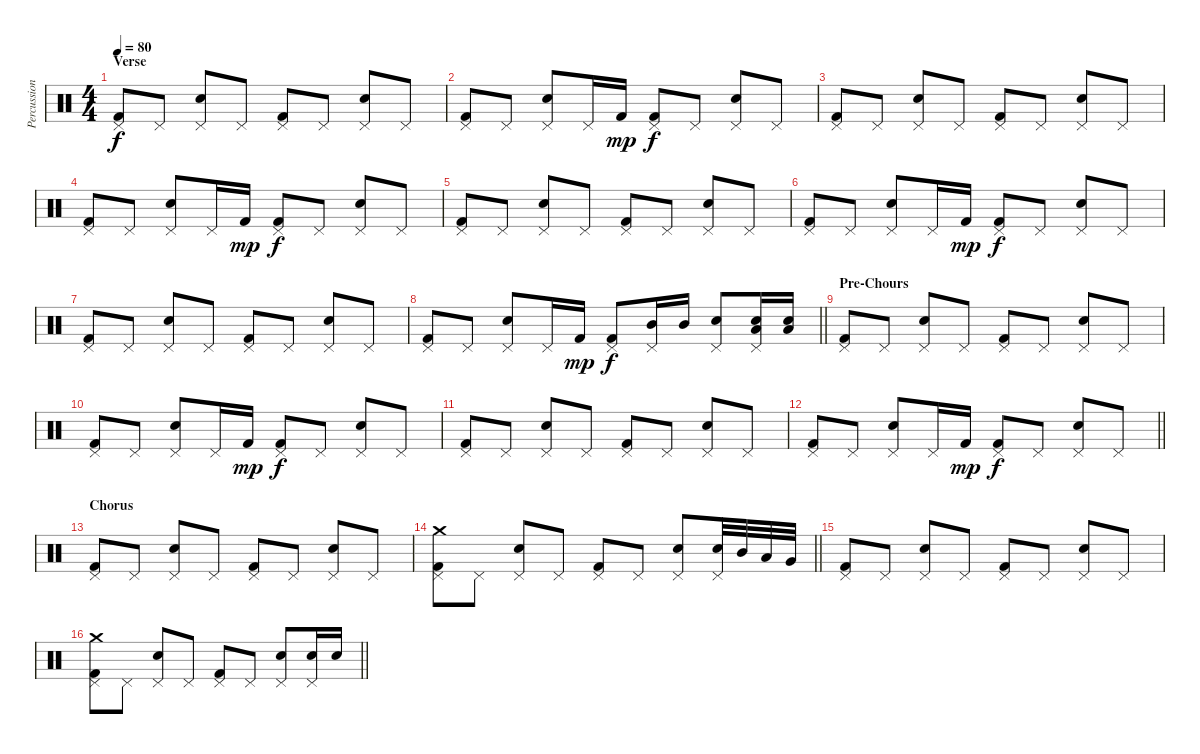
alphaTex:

\track ("Percussion" "Percussion") {instrument percussion}
\staff {score}
\articulation defaults
\ts (4 4)
\section ("" "Verse")
\tempo 80
\clef neutral
\ks c
("Pedal Hi-Hat (hit)" "Kick (hit) 2").8{dy f} "Pedal Hi-Hat (hit)".8 ("Pedal Hi-Hat (hit)" "Electric Snare (hit)").8 "Pedal Hi-Hat (hit)".8 ("Kick (hit) 2" "Pedal Hi-Hat (hit)").8 "Pedal Hi-Hat (hit)".8 ("Electric Snare (hit)" "Pedal Hi-Hat (hit)").8 "Pedal Hi-Hat (hit)".8 |
("Pedal Hi-Hat (hit)" "Kick (hit) 2").8 "Pedal Hi-Hat (hit)".8 ("Pedal Hi-Hat (hit)" "Electric Snare (hit)").8 "Pedal Hi-Hat (hit)".16 "Kick (hit) 2".16{dy mp} ("Kick (hit) 2" "Pedal Hi-Hat (hit)").8{dy f} "Pedal Hi-Hat (hit)".8 ("Electric Snare (hit)" "Pedal Hi-Hat (hit)").8 "Pedal Hi-Hat (hit)".8 |
("Pedal Hi-Hat (hit)" "Kick (hit) 2").8 "Pedal Hi-Hat (hit)".8 ("Pedal Hi-Hat (hit)" "Electric Snare (hit)").8 "Pedal Hi-Hat (hit)".8 ("Kick (hit) 2" "Pedal Hi-Hat (hit)").8 "Pedal Hi-Hat (hit)".8 ("Electric Snare (hit)" "Pedal Hi-Hat (hit)").8 "Pedal Hi-Hat (hit)".8 |
("Pedal Hi-Hat (hit)" "Kick (hit) 2").8 "Pedal Hi-Hat (hit)".8 ("Pedal Hi-Hat (hit)" "Electric Snare (hit)").8 "Pedal Hi-Hat (hit)".16 "Kick (hit) 2".16{dy mp} ("Kick (hit) 2" "Pedal Hi-Hat (hit)").8{dy f} "Pedal Hi-Hat (hit)".8 ("Electric Snare (hit)" "Pedal Hi-Hat (hit)").8 "Pedal Hi-Hat (hit)".8 |
("Pedal Hi-Hat (hit)" "Kick (hit) 2").8 "Pedal Hi-Hat (hit)".8 ("Pedal Hi-Hat (hit)" "Electric Snare (hit)").8 "Pedal Hi-Hat (hit)".8 ("Kick (hit) 2" "Pedal Hi-Hat (hit)").8 "Pedal Hi-Hat (hit)".8 ("Electric Snare (hit)" "Pedal Hi-Hat (hit)").8 "Pedal Hi-Hat (hit)".8 |
("Pedal Hi-Hat (hit)" "Kick (hit) 2").8 "Pedal Hi-Hat (hit)".8 ("Pedal Hi-Hat (hit)" "Electric Snare (hit)").8 "Pedal Hi-Hat (hit)".16 "Kick (hit) 2".16{dy mp} ("Kick (hit) 2" "Pedal Hi-Hat (hit)").8{dy f} "Pedal Hi-Hat (hit)".8 ("Electric Snare (hit)" "Pedal Hi-Hat (hit)").8 "Pedal Hi-Hat (hit)".8 |
("Pedal Hi-Hat (hit)" "Kick (hit) 2").8 "Pedal Hi-Hat (hit)".8 ("Pedal Hi-Hat (hit)" "Electric Snare (hit)").8 "Pedal Hi-Hat (hit)".8 ("Kick (hit) 2" "Pedal Hi-Hat (hit)").8 "Pedal Hi-Hat (hit)".8 ("Electric Snare (hit)" "Pedal Hi-Hat (hit)").8 "Pedal Hi-Hat (hit)".8 |
\barLineRight lightlight
("Pedal Hi-Hat (hit)" "Kick (hit) 2").8 "Pedal Hi-Hat (hit)".8 ("Pedal Hi-Hat (hit)" "Electric Snare (hit)").8 "Pedal Hi-Hat (hit)".16 "Kick (hit) 2".16{dy mp} ("Pedal Hi-Hat (hit)" "Kick (hit) 2").8{dy f} ("Pedal Hi-Hat (hit)" "Mid Tom (hit)").16 "Mid Tom (hit)".16 ("Electric Snare (hit)" "Pedal Hi-Hat (hit)").8 ("Pedal Hi-Hat (hit)" "Electric Snare (hit)" "Low Tom (hit)").16 ("Electric Snare (hit)" "Low Tom (hit)").16 |
\section ("" "Pre-Chours")
("Pedal Hi-Hat (hit)" "Kick (hit) 2").8 "Pedal Hi-Hat (hit)".8 ("Pedal Hi-Hat (hit)" "Electric Snare (hit)").8 "Pedal Hi-Hat (hit)".8 ("Kick (hit) 2" "Pedal Hi-Hat (hit)").8 "Pedal Hi-Hat (hit)".8 ("Electric Snare (hit)" "Pedal Hi-Hat (hit)").8 "Pedal Hi-Hat (hit)".8 |
("Pedal Hi-Hat (hit)" "Kick (hit) 2").8 "Pedal Hi-Hat (hit)".8 ("Pedal Hi-Hat (hit)" "Electric Snare (hit)").8 "Pedal Hi-Hat (hit)".16 "Kick (hit) 2".16{dy mp} ("Kick (hit) 2" "Pedal Hi-Hat (hit)").8{dy f} "Pedal Hi-Hat (hit)".8 ("Electric Snare (hit)" "Pedal Hi-Hat (hit)").8 "Pedal Hi-Hat (hit)".8 |
("Pedal Hi-Hat (hit)" "Kick (hit) 2").8 "Pedal Hi-Hat (hit)".8 ("Pedal Hi-Hat (hit)" "Electric Snare (hit)").8 "Pedal Hi-Hat (hit)".8 ("Kick (hit) 2" "Pedal Hi-Hat (hit)").8 "Pedal Hi-Hat (hit)".8 ("Electric Snare (hit)" "Pedal Hi-Hat (hit)").8 "Pedal Hi-Hat (hit)".8 |
\barLineRight lightlight
("Pedal Hi-Hat (hit)" "Kick (hit) 2").8 "Pedal Hi-Hat (hit)".8 ("Pedal Hi-Hat (hit)" "Electric Snare (hit)").8 "Pedal Hi-Hat (hit)".16 "Kick (hit) 2".16{dy mp} ("Kick (hit) 2" "Pedal Hi-Hat (hit)").8{dy f} "Pedal Hi-Hat (hit)".8 ("Electric Snare (hit)" "Pedal Hi-Hat (hit)").8 "Pedal Hi-Hat (hit)".8 |
\section ("" "Chorus")
("Kick (hit) 2" "Pedal Hi-Hat (hit)").8 "Pedal Hi-Hat (hit)".8 ("Pedal Hi-Hat (hit)" "Electric Snare (hit)").8 "Pedal Hi-Hat (hit)".8 ("Pedal Hi-Hat (hit)" "Kick (hit) 2").8 "Pedal Hi-Hat (hit)".8 ("Pedal Hi-Hat (hit)" "Electric Snare (hit)").8 "Pedal Hi-Hat (hit)".8 |
\barLineRight lightlight
("Pedal Hi-Hat (hit)" "Kick (hit) 2" "Crash medium (hit)").8 "Pedal Hi-Hat (hit)".8 ("Electric Snare (hit)" "Pedal Hi-Hat (hit)").8 "Pedal Hi-Hat (hit)".8 ("Pedal Hi-Hat (hit)" "Kick (hit) 2").8 "Pedal Hi-Hat (hit)".8 ("Pedal Hi-Hat (hit)" "Electric Snare (hit)").8 ("Pedal Hi-Hat (hit)" "Electric Snare (hit)").32 "Mid Tom (hit)".32 "Low Tom (hit)".32 "Very Low Tom (hit)".32 |
\section ("" "")
("Pedal Hi-Hat (hit)" "Kick (hit) 2").8 "Pedal Hi-Hat (hit)".8 ("Pedal Hi-Hat (hit)" "Electric Snare (hit)").8 "Pedal Hi-Hat (hit)".8 ("Kick (hit) 2" "Pedal Hi-Hat (hit)").8 "Pedal Hi-Hat (hit)".8 ("Electric Snare (hit)" "Pedal Hi-Hat (hit)").8 "Pedal Hi-Hat (hit)".8 |
\barLineRight lightlight
("Kick (hit) 2" "Pedal Hi-Hat (hit)" "Crash medium (hit)").8 "Pedal Hi-Hat (hit)".8 ("Electric Snare (hit)" "Pedal Hi-Hat (hit)").8 "Pedal Hi-Hat (hit)".8 ("Kick (hit) 2" "Pedal Hi-Hat (hit)").8 "Pedal Hi-Hat (hit)".8 ("Electric Snare (hit)" "Pedal Hi-Hat (hit)").8 ("Electric Snare (hit)" "Pedal Hi-Hat (hit)").16 "Electric Snare (hit)".16
